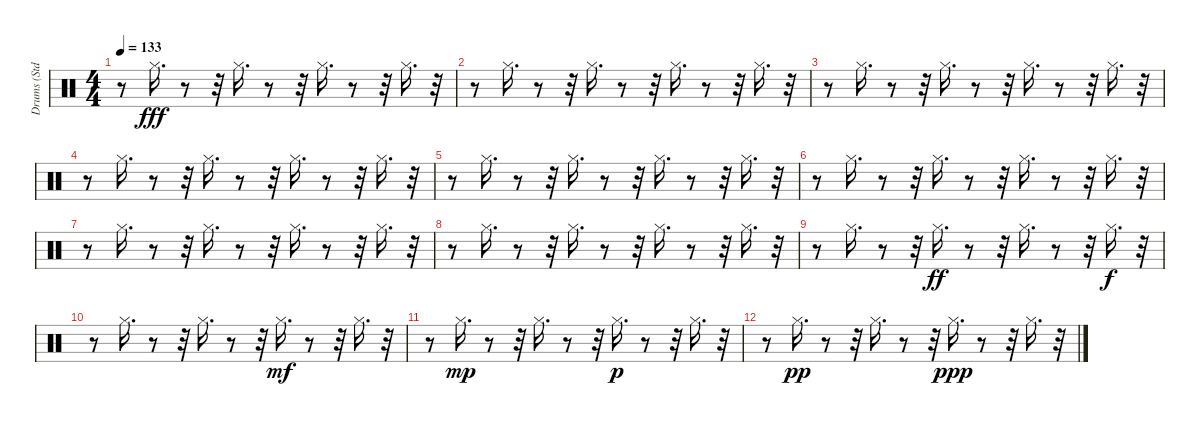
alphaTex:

\track ("Drums (Std.)" "Drums (Std") {instrument percussion}
\staff {score}
\articulation defaults
\ts (4 4)
\tempo 133
\clef neutral
\ks c
r.8{dy fff} "Hi-Hat (closed)".16{d} r.8 r.32 "Hi-Hat (closed)".16{d} r.8 r.32 "Hi-Hat (closed)".16{d} r.8 r.32 "Hi-Hat (closed)".16{d} r.32 |
r.8 "Hi-Hat (closed)".16{d} r.8 r.32 "Hi-Hat (closed)".16{d} r.8 r.32 "Hi-Hat (closed)".16{d} r.8 r.32 "Hi-Hat (closed)".16{d} r.32 |
r.8 "Hi-Hat (closed)".16{d} r.8 r.32 "Hi-Hat (closed)".16{d} r.8 r.32 "Hi-Hat (closed)".16{d} r.8 r.32 "Hi-Hat (closed)".16{d} r.32 |
r.8 "Hi-Hat (closed)".16{d} r.8 r.32 "Hi-Hat (closed)".16{d} r.8 r.32 "Hi-Hat (closed)".16{d} r.8 r.32 "Hi-Hat (closed)".16{d} r.32 |
r.8 "Hi-Hat (closed)".16{d} r.8 r.32 "Hi-Hat (closed)".16{d} r.8 r.32 "Hi-Hat (closed)".16{d} r.8 r.32 "Hi-Hat (closed)".16{d} r.32 |
r.8 "Hi-Hat (closed)".16{d} r.8 r.32 "Hi-Hat (closed)".16{d} r.8 r.32 "Hi-Hat (closed)".16{d} r.8 r.32 "Hi-Hat (closed)".16{d} r.32 |
r.8 "Hi-Hat (closed)".16{d} r.8 r.32 "Hi-Hat (closed)".16{d} r.8 r.32 "Hi-Hat (closed)".16{d} r.8 r.32 "Hi-Hat (closed)".16{d} r.32 |
r.8 "Hi-Hat (closed)".16{d} r.8 r.32 "Hi-Hat (closed)".16{d} r.8 r.32 "Hi-Hat (closed)".16{d} r.8 r.32 "Hi-Hat (closed)".16{d} r.32 |
r.8 "Hi-Hat (closed)".16{d} r.8 r.32 "Hi-Hat (closed)".16{d dy ff} r.8 r.32 "Hi-Hat (closed)".16{d} r.8 r.32 "Hi-Hat (closed)".16{d dy f} r.32 |
r.8 "Hi-Hat (closed)".16{d} r.8 r.32 "Hi-Hat (closed)".16{d} r.8 r.32 "Hi-Hat (closed)".16{d dy mf} r.8 r.32 "Hi-Hat (closed)".16{d} r.32 |
r.8 "Hi-Hat (closed)".16{d dy mp} r.8 r.32 "Hi-Hat (closed)".16{d} r.8 r.32 "Hi-Hat (closed)".16{d dy p} r.8 r.32 "Hi-Hat (closed)".16{d} r.32 |
r.8 "Hi-Hat (closed)".16{d dy pp} r.8 r.32 "Hi-Hat (closed)".16{d} r.8 r.32 "Hi-Hat (closed)".16{d dy ppp} r.8 r.32 "Hi-Hat (closed)".16{d} r.32
